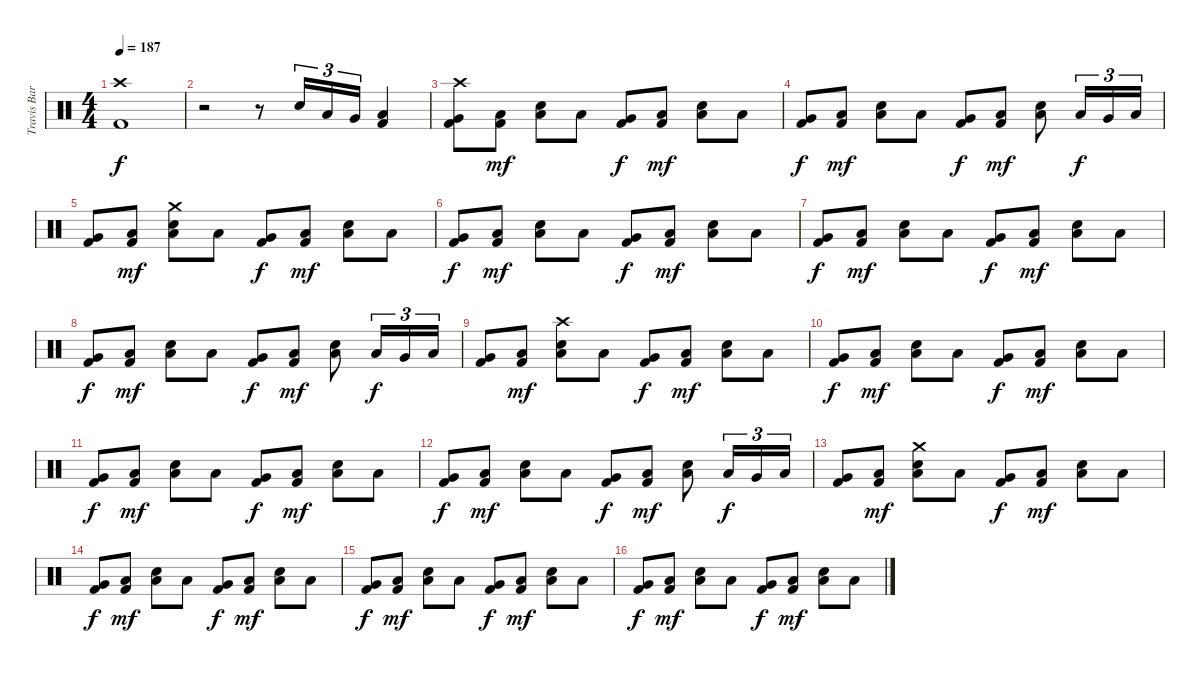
\track ("Travis Barker Drums" "Travis Bar") {instrument percussion}
\staff {score}
\articulation defaults
\ts (4 4)
\tempo 187
\clef neutral
\ks c
("Crash high (hit)" "Kick (hit) 2").1{dy f} |
r.2 r.8 "Electric Snare (hit)".16{tu (3 2)} "Low Tom (hit)".16{tu (3 2)} "Very Low Tom (hit)".16{tu (3 2)} ("Low Floor Tom (hit)" "Kick (hit) 2").4 |
("Crash high (hit)" "Very Low Tom (hit)" "Kick (hit) 2").8 ("Low Floor Tom (hit)" "Kick (hit) 2").8{dy mf} ("Low Floor Tom (hit)" "Electric Snare (hit)").8 "Low Floor Tom (hit)".8 ("Very Low Tom (hit)" "Kick (hit) 2").8{dy f} ("Low Floor Tom (hit)" "Kick (hit) 2").8{dy mf} ("Low Floor Tom (hit)" "Electric Snare (hit)").8 "Low Floor Tom (hit)".8 |
("Very Low Tom (hit)" "Kick (hit) 2").8{dy f} ("Low Floor Tom (hit)" "Kick (hit) 2").8{dy mf} ("Low Floor Tom (hit)" "Electric Snare (hit)").8 "Low Floor Tom (hit)".8 ("Very Low Tom (hit)" "Kick (hit) 2").8{dy f} ("Low Floor Tom (hit)" "Kick (hit) 2").8{dy mf} ("Low Floor Tom (hit)" "Electric Snare (hit)").8 "Low Tom (hit)".16{tu (3 2) dy f} "Very Low Tom (hit)".16{tu (3 2)} "Low Floor Tom (hit)".16{tu (3 2)} |
("Very Low Tom (hit)" "Kick (hit) 2").8 ("Low Floor Tom (hit)" "Kick (hit) 2").8{dy mf} ("Crash medium (hit)" "Low Floor Tom (hit)" "Electric Snare (hit)").8 "Low Floor Tom (hit)".8 ("Very Low Tom (hit)" "Kick (hit) 2").8{dy f} ("Low Floor Tom (hit)" "Kick (hit) 2").8{dy mf} ("Low Floor Tom (hit)" "Electric Snare (hit)").8 "Low Floor Tom (hit)".8 |
("Very Low Tom (hit)" "Kick (hit) 2").8{dy f} ("Low Floor Tom (hit)" "Kick (hit) 2").8{dy mf} ("Low Floor Tom (hit)" "Electric Snare (hit)").8 "Low Floor Tom (hit)".8 ("Very Low Tom (hit)" "Kick (hit) 2").8{dy f} ("Low Floor Tom (hit)" "Kick (hit) 2").8{dy mf} ("Low Floor Tom (hit)" "Electric Snare (hit)").8 "Low Floor Tom (hit)".8 |
("Very Low Tom (hit)" "Kick (hit) 2").8{dy f} ("Low Floor Tom (hit)" "Kick (hit) 2").8{dy mf} ("Low Floor Tom (hit)" "Electric Snare (hit)").8 "Low Floor Tom (hit)".8 ("Very Low Tom (hit)" "Kick (hit) 2").8{dy f} ("Low Floor Tom (hit)" "Kick (hit) 2").8{dy mf} ("Low Floor Tom (hit)" "Electric Snare (hit)").8 "Low Floor Tom (hit)".8 |
("Very Low Tom (hit)" "Kick (hit) 2").8{dy f} ("Low Floor Tom (hit)" "Kick (hit) 2").8{dy mf} ("Low Floor Tom (hit)" "Electric Snare (hit)").8 "Low Floor Tom (hit)".8 ("Very Low Tom (hit)" "Kick (hit) 2").8{dy f} ("Low Floor Tom (hit)" "Kick (hit) 2").8{dy mf} ("Low Floor Tom (hit)" "Electric Snare (hit)").8 "Low Tom (hit)".16{tu (3 2) dy f} "Very Low Tom (hit)".16{tu (3 2)} "Low Floor Tom (hit)".16{tu (3 2)} |
("Very Low Tom (hit)" "Kick (hit) 2").8 ("Low Floor Tom (hit)" "Kick (hit) 2").8{dy mf} ("Crash high (hit)" "Low Floor Tom (hit)" "Electric Snare (hit)").8 "Low Floor Tom (hit)".8 ("Very Low Tom (hit)" "Kick (hit) 2").8{dy f} ("Low Floor Tom (hit)" "Kick (hit) 2").8{dy mf} ("Low Floor Tom (hit)" "Electric Snare (hit)").8 "Low Floor Tom (hit)".8 |
("Very Low Tom (hit)" "Kick (hit) 2").8{dy f} ("Low Floor Tom (hit)" "Kick (hit) 2").8{dy mf} ("Low Floor Tom (hit)" "Electric Snare (hit)").8 "Low Floor Tom (hit)".8 ("Very Low Tom (hit)" "Kick (hit) 2").8{dy f} ("Low Floor Tom (hit)" "Kick (hit) 2").8{dy mf} ("Low Floor Tom (hit)" "Electric Snare (hit)").8 "Low Floor Tom (hit)".8 |
("Very Low Tom (hit)" "Kick (hit) 2").8{dy f} ("Low Floor Tom (hit)" "Kick (hit) 2").8{dy mf} ("Low Floor Tom (hit)" "Electric Snare (hit)").8 "Low Floor Tom (hit)".8 ("Very Low Tom (hit)" "Kick (hit) 2").8{dy f} ("Low Floor Tom (hit)" "Kick (hit) 2").8{dy mf} ("Low Floor Tom (hit)" "Electric Snare (hit)").8 "Low Floor Tom (hit)".8 |
("Very Low Tom (hit)" "Kick (hit) 2").8{dy f} ("Low Floor Tom (hit)" "Kick (hit) 2").8{dy mf} ("Low Floor Tom (hit)" "Electric Snare (hit)").8 "Low Floor Tom (hit)".8 ("Very Low Tom (hit)" "Kick (hit) 2").8{dy f} ("Low Floor Tom (hit)" "Kick (hit) 2").8{dy mf} ("Low Floor Tom (hit)" "Electric Snare (hit)").8 "Low Tom (hit)".16{tu (3 2) dy f} "Very Low Tom (hit)".16{tu (3 2)} "Low Floor Tom (hit)".16{tu (3 2)} |
("Very Low Tom (hit)" "Kick (hit) 2").8 ("Low Floor Tom (hit)" "Kick (hit) 2").8{dy mf} ("Crash medium (hit)" "Low Floor Tom (hit)" "Electric Snare (hit)").8 "Low Floor Tom (hit)".8 ("Very Low Tom (hit)" "Kick (hit) 2").8{dy f} ("Low Floor Tom (hit)" "Kick (hit) 2").8{dy mf} ("Low Floor Tom (hit)" "Electric Snare (hit)").8 "Low Floor Tom (hit)".8 |
("Very Low Tom (hit)" "Kick (hit) 2").8{dy f} ("Low Floor Tom (hit)" "Kick (hit) 2").8{dy mf} ("Low Floor Tom (hit)" "Electric Snare (hit)").8 "Low Floor Tom (hit)".8 ("Very Low Tom (hit)" "Kick (hit) 2").8{dy f} ("Low Floor Tom (hit)" "Kick (hit) 2").8{dy mf} ("Low Floor Tom (hit)" "Electric Snare (hit)").8 "Low Floor Tom (hit)".8 |
("Very Low Tom (hit)" "Kick (hit) 2").8{dy f} ("Low Floor Tom (hit)" "Kick (hit) 2").8{dy mf} ("Low Floor Tom (hit)" "Electric Snare (hit)").8 "Low Floor Tom (hit)".8 ("Very Low Tom (hit)" "Kick (hit) 2").8{dy f} ("Low Floor Tom (hit)" "Kick (hit) 2").8{dy mf} ("Low Floor Tom (hit)" "Electric Snare (hit)").8 "Low Floor Tom (hit)".8 |
("Very Low Tom (hit)" "Kick (hit) 2").8{dy f} ("Low Floor Tom (hit)" "Kick (hit) 2").8{dy mf} ("Low Floor Tom (hit)" "Electric Snare (hit)").8 "Low Floor Tom (hit)".8 ("Very Low Tom (hit)" "Kick (hit) 2").8{dy f} ("Low Floor Tom (hit)" "Kick (hit) 2").8{dy mf} ("Low Floor Tom (hit)" "Electric Snare (hit)").8 "Low Floor Tom (hit)".8
